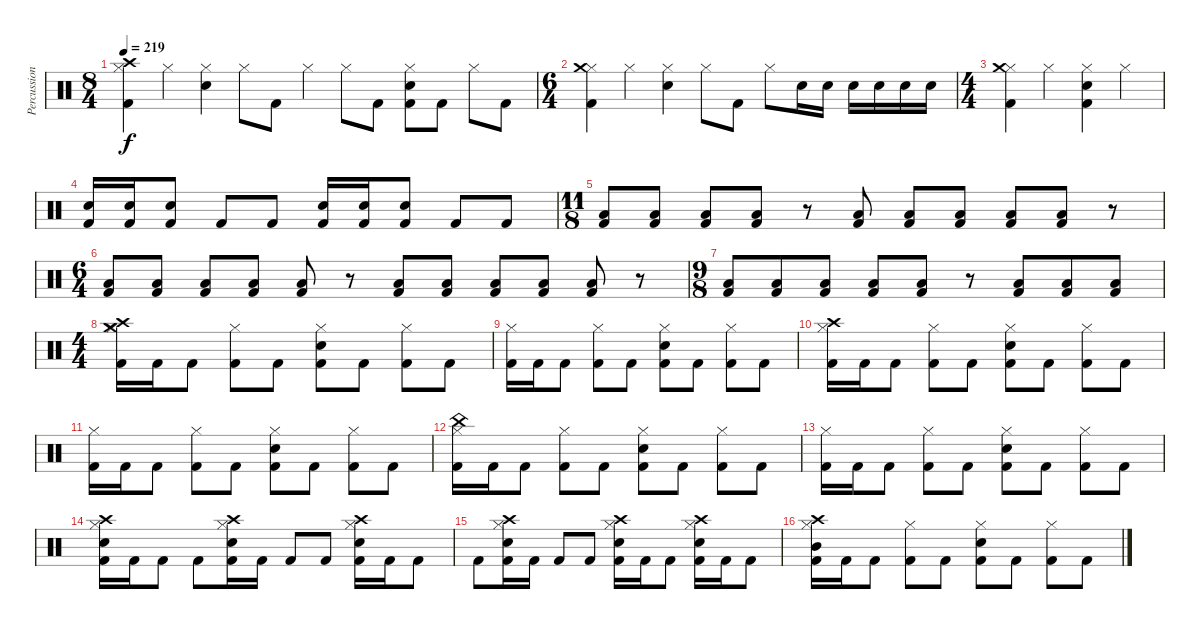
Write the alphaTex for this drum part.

\track ("Percussion" "Percussion") {instrument percussion}
\staff {score}
\articulation defaults
\ts (8 4)
\tempo 219
\clef neutral
\ks c
("Hi-Hat (closed)" "Crash high (hit)" "Kick (hit) 2").4{dy f} "Hi-Hat (closed)".4 ("Hi-Hat (closed)" "Electric Snare (hit)").4 "Hi-Hat (closed)".8 "Kick (hit) 2".8 "Hi-Hat (closed)".4 "Hi-Hat (closed)".8 "Kick (hit) 2".8 ("Hi-Hat (closed)" "Kick (hit) 2" "Electric Snare (hit)").8 "Kick (hit) 2".8 "Hi-Hat (closed)".8 "Kick (hit) 2".8 |
\ts (6 4)
("Hi-Hat (closed)" "Crash medium (hit)" "Kick (hit) 2").4 "Hi-Hat (closed)".4 ("Hi-Hat (closed)" "Electric Snare (hit)").4 "Hi-Hat (closed)".8 "Kick (hit) 2".8 "Hi-Hat (closed)".8 "Electric Snare (hit)".16 "Electric Snare (hit)".16 "Electric Snare (hit)".16 "Electric Snare (hit)".16 "Electric Snare (hit)".16 "Electric Snare (hit)".16 |
\ts (4 4)
("Hi-Hat (closed)" "Crash medium (hit)" "Kick (hit) 2").4 "Hi-Hat (closed)".4 ("Hi-Hat (closed)" "Kick (hit) 2" "Electric Snare (hit)").4 "Hi-Hat (closed)".4 |
("Electric Snare (hit)" "Kick (hit) 2").16 ("Electric Snare (hit)" "Kick (hit) 2").16 ("Electric Snare (hit)" "Kick (hit) 2").8 "Kick (hit) 2".8 "Kick (hit) 2".8 ("Electric Snare (hit)" "Kick (hit) 2").16 ("Electric Snare (hit)" "Kick (hit) 2").16 ("Electric Snare (hit)" "Kick (hit) 2").8 "Kick (hit) 2".8 "Kick (hit) 2".8 |
\ts (11 8)
("Kick (hit) 2" "Low Tom (hit)").8 ("Kick (hit) 2" "Low Tom (hit)").8 ("Kick (hit) 2" "Low Tom (hit)").8 ("Kick (hit) 2" "Low Tom (hit)").8 r.8 ("Kick (hit) 2" "Low Tom (hit)").8 ("Kick (hit) 2" "Low Tom (hit)").8 ("Kick (hit) 2" "Low Tom (hit)").8 ("Kick (hit) 2" "Low Tom (hit)").8 ("Kick (hit) 2" "Low Tom (hit)").8 r.8 |
\ts (6 4)
("Kick (hit) 2" "Low Tom (hit)").8 ("Kick (hit) 2" "Low Tom (hit)").8 ("Kick (hit) 2" "Low Tom (hit)").8 ("Kick (hit) 2" "Low Tom (hit)").8 ("Kick (hit) 2" "Low Tom (hit)").8 r.8 ("Kick (hit) 2" "Low Tom (hit)").8 ("Kick (hit) 2" "Low Tom (hit)").8 ("Kick (hit) 2" "Low Tom (hit)").8 ("Kick (hit) 2" "Low Tom (hit)").8 ("Kick (hit) 2" "Low Tom (hit)").8 r.8 |
\ts (9 8)
("Kick (hit) 2" "Low Tom (hit)").8 ("Kick (hit) 2" "Low Tom (hit)").8 ("Kick (hit) 2" "Low Tom (hit)").8 ("Kick (hit) 2" "Low Tom (hit)").8 ("Kick (hit) 2" "Low Tom (hit)").8 r.8 ("Kick (hit) 2" "Low Tom (hit)").8 ("Kick (hit) 2" "Low Tom (hit)").8 ("Kick (hit) 2" "Low Tom (hit)").8 |
\ts (4 4)
("Crash high (hit)" "Crash medium (hit)" "Hi-Hat (closed)" "Kick (hit) 2").16 "Kick (hit) 2".16 "Kick (hit) 2".8 ("Hi-Hat (closed)" "Kick (hit) 2").8 "Kick (hit) 2".8 ("Hi-Hat (closed)" "Electric Snare (hit)" "Kick (hit) 2").8 "Kick (hit) 2".8 ("Hi-Hat (closed)" "Kick (hit) 2").8 "Kick (hit) 2".8 |
("Hi-Hat (closed)" "Kick (hit) 2").16 "Kick (hit) 2".16 "Kick (hit) 2".8 ("Hi-Hat (closed)" "Kick (hit) 2").8 "Kick (hit) 2".8 ("Hi-Hat (closed)" "Electric Snare (hit)" "Kick (hit) 2").8 "Kick (hit) 2".8 ("Hi-Hat (closed)" "Kick (hit) 2").8 "Kick (hit) 2".8 |
("Crash high (hit)" "Hi-Hat (closed)" "Kick (hit) 2").16 "Kick (hit) 2".16 "Kick (hit) 2".8 ("Hi-Hat (closed)" "Kick (hit) 2").8 "Kick (hit) 2".8 ("Hi-Hat (closed)" "Electric Snare (hit)" "Kick (hit) 2").8 "Kick (hit) 2".8 ("Hi-Hat (closed)" "Kick (hit) 2").8 "Kick (hit) 2".8 |
("Hi-Hat (closed)" "Kick (hit) 2").16 "Kick (hit) 2".16 "Kick (hit) 2".8 ("Hi-Hat (closed)" "Kick (hit) 2").8 "Kick (hit) 2".8 ("Hi-Hat (closed)" "Electric Snare (hit)" "Kick (hit) 2").8 "Kick (hit) 2".8 ("Hi-Hat (closed)" "Kick (hit) 2").8 "Kick (hit) 2".8 |
("China (hit)" "Hi-Hat (closed)" "Kick (hit) 2").16 "Kick (hit) 2".16 "Kick (hit) 2".8 ("Hi-Hat (closed)" "Kick (hit) 2").8 "Kick (hit) 2".8 ("Hi-Hat (closed)" "Electric Snare (hit)" "Kick (hit) 2").8 "Kick (hit) 2".8 ("Hi-Hat (closed)" "Kick (hit) 2").8 "Kick (hit) 2".8 |
("Hi-Hat (closed)" "Kick (hit) 2").16 "Kick (hit) 2".16 "Kick (hit) 2".8 ("Hi-Hat (closed)" "Kick (hit) 2").8 "Kick (hit) 2".8 ("Hi-Hat (closed)" "Electric Snare (hit)" "Kick (hit) 2").8 "Kick (hit) 2".8 ("Hi-Hat (closed)" "Kick (hit) 2").8 "Kick (hit) 2".8 |
("Crash high (hit)" "Electric Snare (hit)" "Hi-Hat (closed)" "Kick (hit) 2").16 "Kick (hit) 2".16 "Kick (hit) 2".8 "Kick (hit) 2".8 ("Crash high (hit)" "Electric Snare (hit)" "Hi-Hat (closed)" "Kick (hit) 2").16 "Kick (hit) 2".16 "Kick (hit) 2".8 "Kick (hit) 2".8 ("Crash high (hit)" "Electric Snare (hit)" "Hi-Hat (closed)" "Kick (hit) 2").16 "Kick (hit) 2".16 "Kick (hit) 2".8 |
"Kick (hit) 2".8 ("Crash high (hit)" "Electric Snare (hit)" "Hi-Hat (closed)" "Kick (hit) 2").16 "Kick (hit) 2".16 "Kick (hit) 2".8 "Kick (hit) 2".8 ("Crash high (hit)" "Electric Snare (hit)" "Hi-Hat (closed)" "Kick (hit) 2").16 "Kick (hit) 2".16 "Kick (hit) 2".8 ("Crash high (hit)" "Electric Snare (hit)" "Hi-Hat (closed)" "Kick (hit) 2").16 "Kick (hit) 2".16 "Kick (hit) 2".8 |
("Crash high (hit)" "Mid Tom (hit)" "Hi-Hat (closed)" "Kick (hit) 2").16 "Kick (hit) 2".16 "Kick (hit) 2".8 ("Hi-Hat (closed)" "Kick (hit) 2").8 "Kick (hit) 2".8 ("Hi-Hat (closed)" "Electric Snare (hit)" "Kick (hit) 2").8 "Kick (hit) 2".8 ("Hi-Hat (closed)" "Kick (hit) 2").8 "Kick (hit) 2".8
